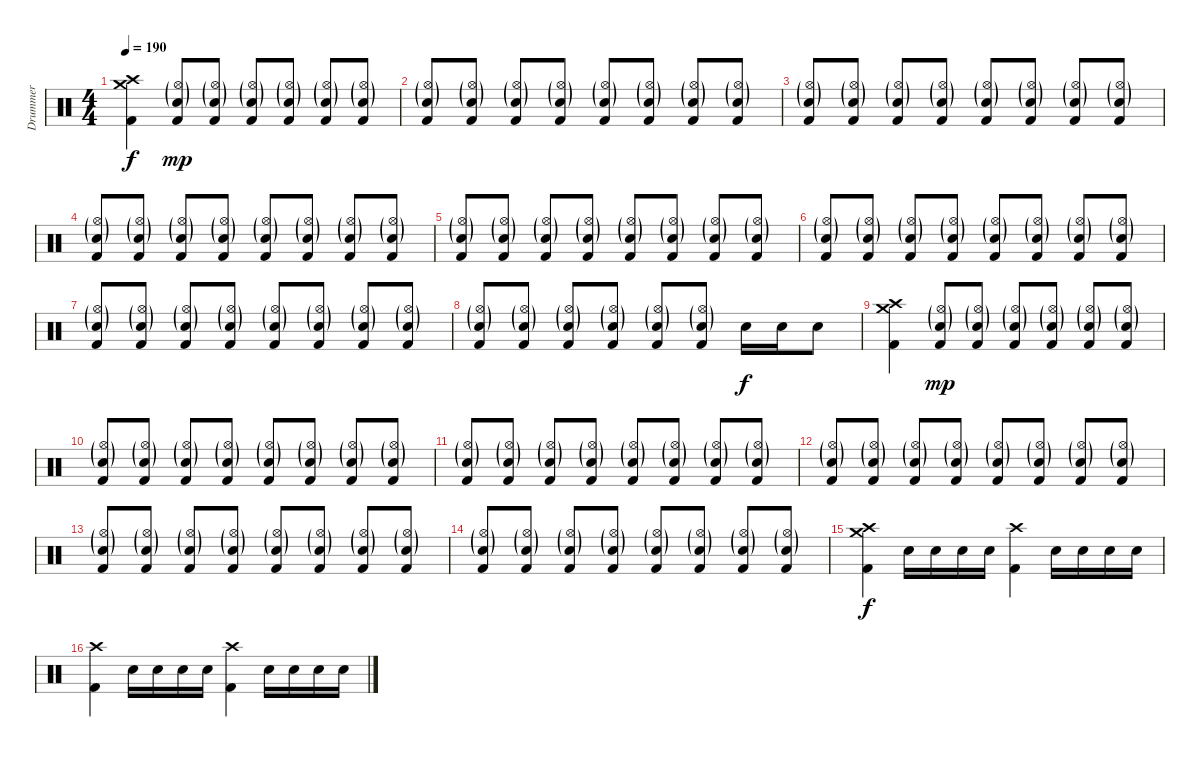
\track ("Drummer" "Drummer") {instrument percussion bank 7}
\staff {score}
\articulation defaults
\ts (4 4)
\tempo 190
\clef neutral
\ks c
("Crash medium (hit)" "Crash high (hit)" "Kick (hit) 2").4{dy f} ("Hi-Hat (open)"{g} "Electric Snare (hit)"{g} "Kick (hit) 2").8{dy mp} ("Hi-Hat (open)"{g} "Electric Snare (hit)"{g} "Kick (hit) 2").8 ("Hi-Hat (open)"{g} "Electric Snare (hit)"{g} "Kick (hit) 2").8 ("Hi-Hat (open)"{g} "Electric Snare (hit)"{g} "Kick (hit) 2").8 ("Hi-Hat (open)"{g} "Electric Snare (hit)"{g} "Kick (hit) 2").8 ("Hi-Hat (open)"{g} "Electric Snare (hit)"{g} "Kick (hit) 2").8 |
("Hi-Hat (open)"{g} "Electric Snare (hit)"{g} "Kick (hit) 2").8 ("Hi-Hat (open)"{g} "Electric Snare (hit)"{g} "Kick (hit) 2").8 ("Hi-Hat (open)"{g} "Electric Snare (hit)"{g} "Kick (hit) 2").8 ("Hi-Hat (open)"{g} "Electric Snare (hit)"{g} "Kick (hit) 2").8 ("Hi-Hat (open)"{g} "Electric Snare (hit)"{g} "Kick (hit) 2").8 ("Hi-Hat (open)"{g} "Electric Snare (hit)"{g} "Kick (hit) 2").8 ("Hi-Hat (open)"{g} "Electric Snare (hit)"{g} "Kick (hit) 2").8 ("Hi-Hat (open)"{g} "Electric Snare (hit)"{g} "Kick (hit) 2").8 |
("Hi-Hat (open)"{g} "Electric Snare (hit)"{g} "Kick (hit) 2").8 ("Hi-Hat (open)"{g} "Electric Snare (hit)"{g} "Kick (hit) 2").8 ("Hi-Hat (open)"{g} "Electric Snare (hit)"{g} "Kick (hit) 2").8 ("Hi-Hat (open)"{g} "Electric Snare (hit)"{g} "Kick (hit) 2").8 ("Hi-Hat (open)"{g} "Electric Snare (hit)"{g} "Kick (hit) 2").8 ("Hi-Hat (open)"{g} "Electric Snare (hit)"{g} "Kick (hit) 2").8 ("Hi-Hat (open)"{g} "Electric Snare (hit)"{g} "Kick (hit) 2").8 ("Hi-Hat (open)"{g} "Electric Snare (hit)"{g} "Kick (hit) 2").8 |
("Hi-Hat (open)"{g} "Electric Snare (hit)"{g} "Kick (hit) 2").8 ("Hi-Hat (open)"{g} "Electric Snare (hit)"{g} "Kick (hit) 2").8 ("Hi-Hat (open)"{g} "Electric Snare (hit)"{g} "Kick (hit) 2").8 ("Hi-Hat (open)"{g} "Electric Snare (hit)"{g} "Kick (hit) 2").8 ("Hi-Hat (open)"{g} "Electric Snare (hit)"{g} "Kick (hit) 2").8 ("Hi-Hat (open)"{g} "Electric Snare (hit)"{g} "Kick (hit) 2").8 ("Hi-Hat (open)"{g} "Electric Snare (hit)"{g} "Kick (hit) 2").8 ("Hi-Hat (open)"{g} "Electric Snare (hit)"{g} "Kick (hit) 2").8 |
("Hi-Hat (open)"{g} "Electric Snare (hit)"{g} "Kick (hit) 2").8 ("Hi-Hat (open)"{g} "Electric Snare (hit)"{g} "Kick (hit) 2").8 ("Hi-Hat (open)"{g} "Electric Snare (hit)"{g} "Kick (hit) 2").8 ("Hi-Hat (open)"{g} "Electric Snare (hit)"{g} "Kick (hit) 2").8 ("Hi-Hat (open)"{g} "Electric Snare (hit)"{g} "Kick (hit) 2").8 ("Hi-Hat (open)"{g} "Electric Snare (hit)"{g} "Kick (hit) 2").8 ("Hi-Hat (open)"{g} "Electric Snare (hit)"{g} "Kick (hit) 2").8 ("Hi-Hat (open)"{g} "Electric Snare (hit)"{g} "Kick (hit) 2").8 |
("Hi-Hat (open)"{g} "Electric Snare (hit)"{g} "Kick (hit) 2").8 ("Hi-Hat (open)"{g} "Electric Snare (hit)"{g} "Kick (hit) 2").8 ("Hi-Hat (open)"{g} "Electric Snare (hit)"{g} "Kick (hit) 2").8 ("Hi-Hat (open)"{g} "Electric Snare (hit)"{g} "Kick (hit) 2").8 ("Hi-Hat (open)"{g} "Electric Snare (hit)"{g} "Kick (hit) 2").8 ("Hi-Hat (open)"{g} "Electric Snare (hit)"{g} "Kick (hit) 2").8 ("Hi-Hat (open)"{g} "Electric Snare (hit)"{g} "Kick (hit) 2").8 ("Hi-Hat (open)"{g} "Electric Snare (hit)"{g} "Kick (hit) 2").8 |
("Hi-Hat (open)"{g} "Electric Snare (hit)"{g} "Kick (hit) 2").8 ("Hi-Hat (open)"{g} "Electric Snare (hit)"{g} "Kick (hit) 2").8 ("Hi-Hat (open)"{g} "Electric Snare (hit)"{g} "Kick (hit) 2").8 ("Hi-Hat (open)"{g} "Electric Snare (hit)"{g} "Kick (hit) 2").8 ("Hi-Hat (open)"{g} "Electric Snare (hit)"{g} "Kick (hit) 2").8 ("Hi-Hat (open)"{g} "Electric Snare (hit)"{g} "Kick (hit) 2").8 ("Hi-Hat (open)"{g} "Electric Snare (hit)"{g} "Kick (hit) 2").8 ("Hi-Hat (open)"{g} "Electric Snare (hit)"{g} "Kick (hit) 2").8 |
("Hi-Hat (open)"{g} "Electric Snare (hit)"{g} "Kick (hit) 2").8 ("Hi-Hat (open)"{g} "Electric Snare (hit)"{g} "Kick (hit) 2").8 ("Hi-Hat (open)"{g} "Electric Snare (hit)"{g} "Kick (hit) 2").8 ("Hi-Hat (open)"{g} "Electric Snare (hit)"{g} "Kick (hit) 2").8 ("Hi-Hat (open)"{g} "Electric Snare (hit)"{g} "Kick (hit) 2").8 ("Hi-Hat (open)"{g} "Electric Snare (hit)"{g} "Kick (hit) 2").8 "Electric Snare (hit)".16{dy f} "Electric Snare (hit)".16 "Electric Snare (hit)".8 |
("Crash medium (hit)" "Crash high (hit)" "Kick (hit) 2").4 ("Hi-Hat (open)"{g} "Electric Snare (hit)"{g} "Kick (hit) 2").8{dy mp} ("Hi-Hat (open)"{g} "Electric Snare (hit)"{g} "Kick (hit) 2").8 ("Hi-Hat (open)"{g} "Electric Snare (hit)"{g} "Kick (hit) 2").8 ("Hi-Hat (open)"{g} "Electric Snare (hit)"{g} "Kick (hit) 2").8 ("Hi-Hat (open)"{g} "Electric Snare (hit)"{g} "Kick (hit) 2").8 ("Hi-Hat (open)"{g} "Electric Snare (hit)"{g} "Kick (hit) 2").8 |
("Hi-Hat (open)"{g} "Electric Snare (hit)"{g} "Kick (hit) 2").8 ("Hi-Hat (open)"{g} "Electric Snare (hit)"{g} "Kick (hit) 2").8 ("Hi-Hat (open)"{g} "Electric Snare (hit)"{g} "Kick (hit) 2").8 ("Hi-Hat (open)"{g} "Electric Snare (hit)"{g} "Kick (hit) 2").8 ("Hi-Hat (open)"{g} "Electric Snare (hit)"{g} "Kick (hit) 2").8 ("Hi-Hat (open)"{g} "Electric Snare (hit)"{g} "Kick (hit) 2").8 ("Hi-Hat (open)"{g} "Electric Snare (hit)"{g} "Kick (hit) 2").8 ("Hi-Hat (open)"{g} "Electric Snare (hit)"{g} "Kick (hit) 2").8 |
("Hi-Hat (open)"{g} "Electric Snare (hit)"{g} "Kick (hit) 2").8 ("Hi-Hat (open)"{g} "Electric Snare (hit)"{g} "Kick (hit) 2").8 ("Hi-Hat (open)"{g} "Electric Snare (hit)"{g} "Kick (hit) 2").8 ("Hi-Hat (open)"{g} "Electric Snare (hit)"{g} "Kick (hit) 2").8 ("Hi-Hat (open)"{g} "Electric Snare (hit)"{g} "Kick (hit) 2").8 ("Hi-Hat (open)"{g} "Electric Snare (hit)"{g} "Kick (hit) 2").8 ("Hi-Hat (open)"{g} "Electric Snare (hit)"{g} "Kick (hit) 2").8 ("Hi-Hat (open)"{g} "Electric Snare (hit)"{g} "Kick (hit) 2").8 |
("Hi-Hat (open)"{g} "Electric Snare (hit)"{g} "Kick (hit) 2").8 ("Hi-Hat (open)"{g} "Electric Snare (hit)"{g} "Kick (hit) 2").8 ("Hi-Hat (open)"{g} "Electric Snare (hit)"{g} "Kick (hit) 2").8 ("Hi-Hat (open)"{g} "Electric Snare (hit)"{g} "Kick (hit) 2").8 ("Hi-Hat (open)"{g} "Electric Snare (hit)"{g} "Kick (hit) 2").8 ("Hi-Hat (open)"{g} "Electric Snare (hit)"{g} "Kick (hit) 2").8 ("Hi-Hat (open)"{g} "Electric Snare (hit)"{g} "Kick (hit) 2").8 ("Hi-Hat (open)"{g} "Electric Snare (hit)"{g} "Kick (hit) 2").8 |
("Hi-Hat (open)"{g} "Electric Snare (hit)"{g} "Kick (hit) 2").8 ("Hi-Hat (open)"{g} "Electric Snare (hit)"{g} "Kick (hit) 2").8 ("Hi-Hat (open)"{g} "Electric Snare (hit)"{g} "Kick (hit) 2").8 ("Hi-Hat (open)"{g} "Electric Snare (hit)"{g} "Kick (hit) 2").8 ("Hi-Hat (open)"{g} "Electric Snare (hit)"{g} "Kick (hit) 2").8 ("Hi-Hat (open)"{g} "Electric Snare (hit)"{g} "Kick (hit) 2").8 ("Hi-Hat (open)"{g} "Electric Snare (hit)"{g} "Kick (hit) 2").8 ("Hi-Hat (open)"{g} "Electric Snare (hit)"{g} "Kick (hit) 2").8 |
("Hi-Hat (open)"{g} "Electric Snare (hit)"{g} "Kick (hit) 2").8 ("Hi-Hat (open)"{g} "Electric Snare (hit)"{g} "Kick (hit) 2").8 ("Hi-Hat (open)"{g} "Electric Snare (hit)"{g} "Kick (hit) 2").8 ("Hi-Hat (open)"{g} "Electric Snare (hit)"{g} "Kick (hit) 2").8 ("Hi-Hat (open)"{g} "Electric Snare (hit)"{g} "Kick (hit) 2").8 ("Hi-Hat (open)"{g} "Electric Snare (hit)"{g} "Kick (hit) 2").8 ("Hi-Hat (open)"{g} "Electric Snare (hit)"{g} "Kick (hit) 2").8 ("Hi-Hat (open)"{g} "Electric Snare (hit)"{g} "Kick (hit) 2").8 |
("Crash medium (hit)" "Crash high (hit)" "Kick (hit) 2").4{dy f} "Electric Snare (hit)".16 "Electric Snare (hit)".16 "Electric Snare (hit)".16 "Electric Snare (hit)".16 ("Crash high (hit)" "Kick (hit) 2").4 "Electric Snare (hit)".16 "Electric Snare (hit)".16 "Electric Snare (hit)".16 "Electric Snare (hit)".16 |
("Crash high (hit)" "Kick (hit) 2").4 "Electric Snare (hit)".16 "Electric Snare (hit)".16 "Electric Snare (hit)".16 "Electric Snare (hit)".16 ("Crash high (hit)" "Kick (hit) 2").4 "Electric Snare (hit)".16 "Electric Snare (hit)".16 "Electric Snare (hit)".16 "Electric Snare (hit)".16
